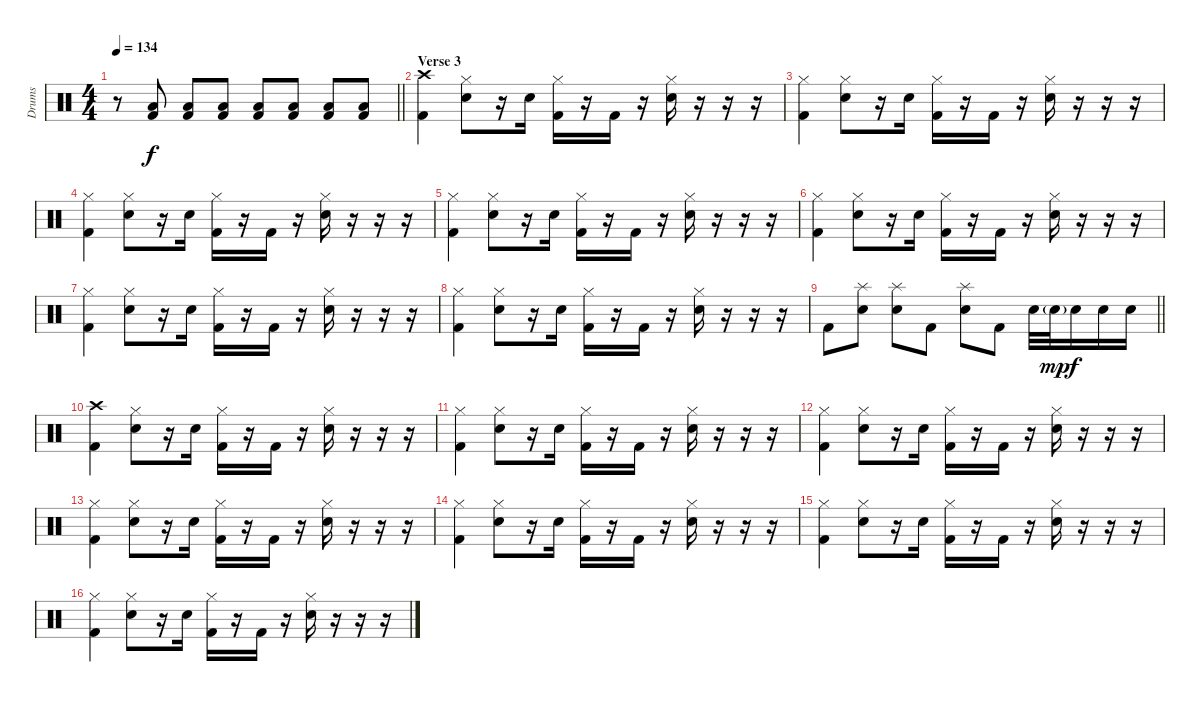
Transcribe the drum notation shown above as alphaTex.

\track ("Drums" "Drums") {instrument percussion}
\staff {score}
\articulation defaults
\ts (4 4)
\tempo 134
\clef neutral
\barLineRight lightlight
\ks c
r.8{dy f} ("Low Floor Tom (hit)" "Kick (hit) 2").8 ("Low Floor Tom (hit)" "Kick (hit) 2").8 ("Low Floor Tom (hit)" "Kick (hit) 2").8 ("Low Floor Tom (hit)" "Kick (hit) 2").8 ("Low Floor Tom (hit)" "Kick (hit) 2").8 ("Low Floor Tom (hit)" "Kick (hit) 2").8 ("Low Floor Tom (hit)" "Kick (hit) 2").8 |
\section ("" "Verse 3")
("Crash high (hit)" "Kick (hit) 2").4 ("Hi-Hat (closed)" "Electric Snare (hit)").8 r.16 "Electric Snare (hit)".16 ("Hi-Hat (closed)" "Kick (hit) 2").16 r.16 "Kick (hit) 2".16 r.16 ("Hi-Hat (closed)" "Electric Snare (hit)").16 r.16 r.16 r.16 |
("Hi-Hat (closed)" "Kick (hit) 2").4 ("Hi-Hat (closed)" "Electric Snare (hit)").8 r.16 "Electric Snare (hit)".16 ("Hi-Hat (closed)" "Kick (hit) 2").16 r.16 "Kick (hit) 2".16 r.16 ("Hi-Hat (closed)" "Electric Snare (hit)").16 r.16 r.16 r.16 |
("Hi-Hat (closed)" "Kick (hit) 2").4 ("Hi-Hat (closed)" "Electric Snare (hit)").8 r.16 "Electric Snare (hit)".16 ("Hi-Hat (closed)" "Kick (hit) 2").16 r.16 "Kick (hit) 2".16 r.16 ("Hi-Hat (closed)" "Electric Snare (hit)").16 r.16 r.16 r.16 |
("Hi-Hat (closed)" "Kick (hit) 2").4 ("Hi-Hat (closed)" "Electric Snare (hit)").8 r.16 "Electric Snare (hit)".16 ("Hi-Hat (closed)" "Kick (hit) 2").16 r.16 "Kick (hit) 2".16 r.16 ("Hi-Hat (closed)" "Electric Snare (hit)").16 r.16 r.16 r.16 |
("Hi-Hat (closed)" "Kick (hit) 2").4 ("Hi-Hat (closed)" "Electric Snare (hit)").8 r.16 "Electric Snare (hit)".16 ("Hi-Hat (closed)" "Kick (hit) 2").16 r.16 "Kick (hit) 2".16 r.16 ("Hi-Hat (closed)" "Electric Snare (hit)").16 r.16 r.16 r.16 |
("Hi-Hat (closed)" "Kick (hit) 2").4 ("Hi-Hat (closed)" "Electric Snare (hit)").8 r.16 "Electric Snare (hit)".16 ("Hi-Hat (closed)" "Kick (hit) 2").16 r.16 "Kick (hit) 2".16 r.16 ("Hi-Hat (closed)" "Electric Snare (hit)").16 r.16 r.16 r.16 |
("Hi-Hat (closed)" "Kick (hit) 2").4 ("Hi-Hat (closed)" "Electric Snare (hit)").8 r.16 "Electric Snare (hit)".16 ("Hi-Hat (closed)" "Kick (hit) 2").16 r.16 "Kick (hit) 2".16 r.16 ("Hi-Hat (closed)" "Electric Snare (hit)").16 r.16 r.16 r.16 |
\barLineRight lightlight "Kick (hit) 2".8
("Splash (hit)" "Electric Snare (hit)").8 ("Splash (hit)" "Electric Snare (hit)").8 "Kick (hit) 2".8 ("Splash (hit)" "Electric Snare (hit)").8 "Kick (hit) 2".8 "Electric Snare (hit)".32 "Electric Snare (hit)"{g}.32{dy mp} "Electric Snare (hit)".16{dy f} "Electric Snare (hit)".16 "Electric Snare (hit)".16 |
("Crash high (hit)" "Kick (hit) 2").4 ("Hi-Hat (closed)" "Electric Snare (hit)").8 r.16 "Electric Snare (hit)".16 ("Hi-Hat (closed)" "Kick (hit) 2").16 r.16 "Kick (hit) 2".16 r.16 ("Hi-Hat (closed)" "Electric Snare (hit)").16 r.16 r.16 r.16 |
("Hi-Hat (closed)" "Kick (hit) 2").4 ("Hi-Hat (closed)" "Electric Snare (hit)").8 r.16 "Electric Snare (hit)".16 ("Hi-Hat (closed)" "Kick (hit) 2").16 r.16 "Kick (hit) 2".16 r.16 ("Hi-Hat (closed)" "Electric Snare (hit)").16 r.16 r.16 r.16 |
("Hi-Hat (closed)" "Kick (hit) 2").4 ("Hi-Hat (closed)" "Electric Snare (hit)").8 r.16 "Electric Snare (hit)".16 ("Hi-Hat (closed)" "Kick (hit) 2").16 r.16 "Kick (hit) 2".16 r.16 ("Hi-Hat (closed)" "Electric Snare (hit)").16 r.16 r.16 r.16 |
("Hi-Hat (closed)" "Kick (hit) 2").4 ("Hi-Hat (closed)" "Electric Snare (hit)").8 r.16 "Electric Snare (hit)".16 ("Hi-Hat (closed)" "Kick (hit) 2").16 r.16 "Kick (hit) 2".16 r.16 ("Hi-Hat (closed)" "Electric Snare (hit)").16 r.16 r.16 r.16 |
("Hi-Hat (closed)" "Kick (hit) 2").4 ("Hi-Hat (closed)" "Electric Snare (hit)").8 r.16 "Electric Snare (hit)".16 ("Hi-Hat (closed)" "Kick (hit) 2").16 r.16 "Kick (hit) 2".16 r.16 ("Hi-Hat (closed)" "Electric Snare (hit)").16 r.16 r.16 r.16 |
("Hi-Hat (closed)" "Kick (hit) 2").4 ("Hi-Hat (closed)" "Electric Snare (hit)").8 r.16 "Electric Snare (hit)".16 ("Hi-Hat (closed)" "Kick (hit) 2").16 r.16 "Kick (hit) 2".16 r.16 ("Hi-Hat (closed)" "Electric Snare (hit)").16 r.16 r.16 r.16 |
("Hi-Hat (closed)" "Kick (hit) 2").4 ("Hi-Hat (closed)" "Electric Snare (hit)").8 r.16 "Electric Snare (hit)".16 ("Hi-Hat (closed)" "Kick (hit) 2").16 r.16 "Kick (hit) 2".16 r.16 ("Hi-Hat (closed)" "Electric Snare (hit)").16 r.16 r.16 r.16
